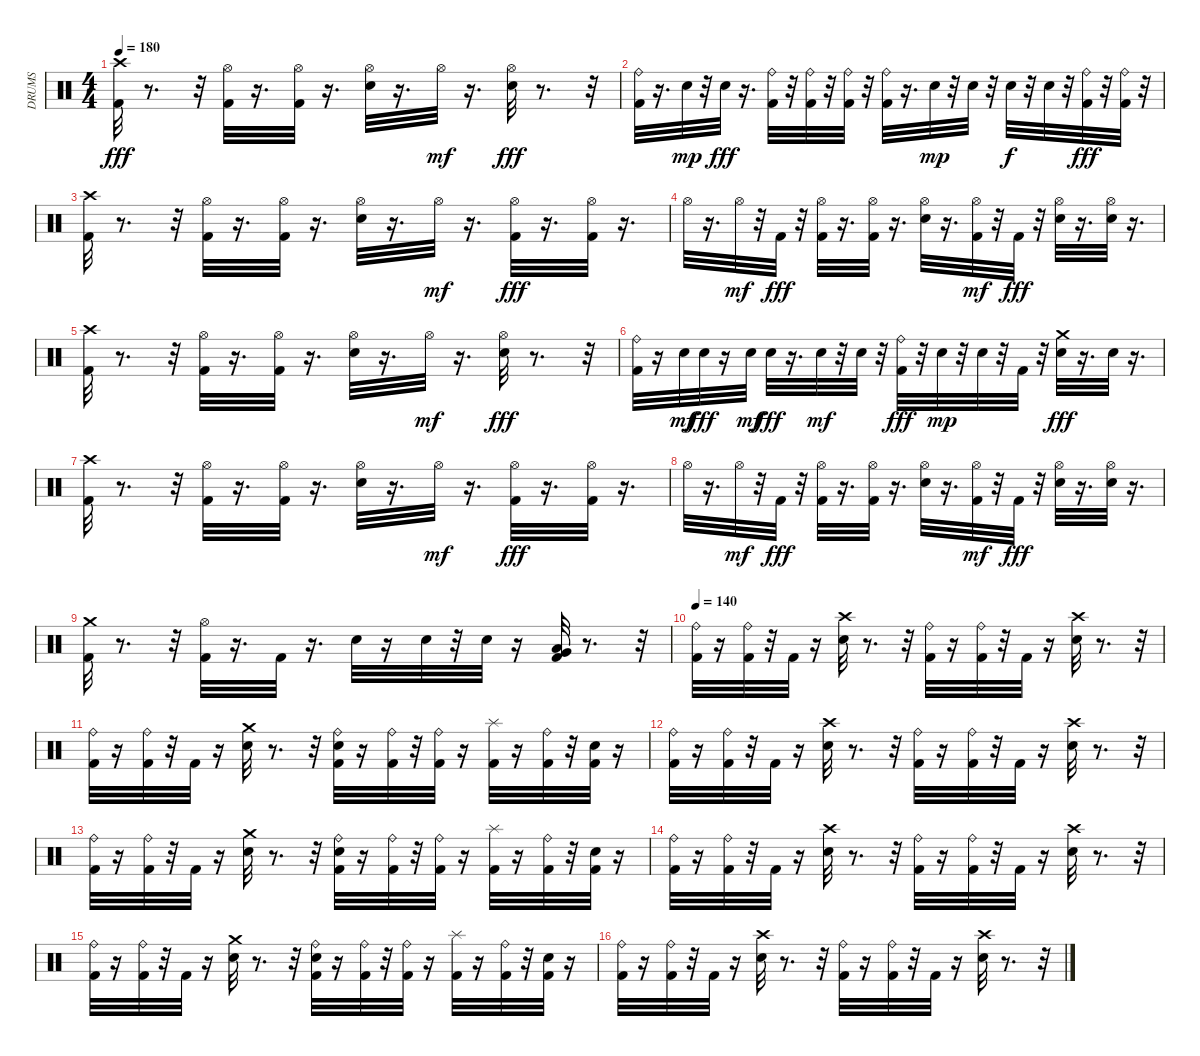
\track ("DRUMS" "DRUMS") {instrument percussion}
\staff {score}
\articulation defaults
\ts (4 4)
\tempo 180
\clef neutral
\ks c
("Crash high (hit)" "Kick (hit) 2").32{dy fff} r.8{d} r.32 ("Hi-Hat (open)" "Kick (hit) 2").32 r.16{d} ("Hi-Hat (open)" "Kick (hit) 2").32 r.16{d} ("Hi-Hat (open)" "Electric Snare (hit)").32 r.16{d} "Hi-Hat (open)".32{dy mf} r.16{d} ("Hi-Hat (open)" "Electric Snare (hit)").32{dy fff} r.8{d} r.32 |
("Ride (bell)" "Kick (hit) 2").32 r.16{d} "Electric Snare (hit)".32{dy mp} r.32 "Electric Snare (hit)".32{dy fff} r.16{d} ("Ride (bell)" "Kick (hit) 2").32 r.32 ("Ride (bell)" "Kick (hit) 2").32 r.32 ("Ride (bell)" "Kick (hit) 2").32 r.32 ("Ride (bell)" "Kick (hit) 2").32 r.16{d} "Electric Snare (hit)".32{dy mp} r.32 "Electric Snare (hit)".32 r.32 "Electric Snare (hit)".32{dy f} r.32 "Electric Snare (hit)".32 r.32 ("Ride (bell)" "Kick (hit) 2").32{dy fff} r.32 ("Ride (bell)" "Kick (hit) 2").32 r.32 |
("Crash high (hit)" "Kick (hit) 2").32 r.8{d} r.32 ("Hi-Hat (open)" "Kick (hit) 2").32 r.16{d} ("Hi-Hat (open)" "Kick (hit) 2").32 r.16{d} ("Hi-Hat (open)" "Electric Snare (hit)").32 r.16{d} "Hi-Hat (open)".32{dy mf} r.16{d} ("Hi-Hat (open)" "Kick (hit) 2").32{dy fff} r.16{d} ("Hi-Hat (open)" "Kick (hit) 2").32 r.16{d} |
"Hi-Hat (open)".32 r.16{d} "Hi-Hat (open)".32{dy mf} r.32 "Kick (hit) 2".32{dy fff} r.32 ("Hi-Hat (open)" "Kick (hit) 2").32 r.16{d} ("Hi-Hat (open)" "Kick (hit) 2").32 r.16{d} ("Hi-Hat (open)" "Electric Snare (hit)").32 r.16{d} ("Hi-Hat (open)" "Kick (hit) 2").32{dy mf} r.32 "Kick (hit) 2".32{dy fff} r.32 ("Hi-Hat (open)" "Electric Snare (hit)").32 r.16{d} ("Hi-Hat (open)" "Electric Snare (hit)").32 r.16{d} |
("Crash high (hit)" "Kick (hit) 2").32 r.8{d} r.32 ("Hi-Hat (open)" "Kick (hit) 2").32 r.16{d} ("Hi-Hat (open)" "Kick (hit) 2").32 r.16{d} ("Hi-Hat (open)" "Electric Snare (hit)").32 r.16{d} "Hi-Hat (open)".32{dy mf} r.16{d} ("Hi-Hat (open)" "Electric Snare (hit)").32{dy fff} r.8{d} r.32 |
("Ride (bell)" "Kick (hit) 2").32 r.16 "Electric Snare (hit)".32{dy mf} "Electric Snare (hit)".32{dy fff} r.16 "Electric Snare (hit)".32{dy mf} "Electric Snare (hit)".32{dy fff} r.16{d} "Electric Snare (hit)".32{dy mf} r.32 "Electric Snare (hit)".32 r.32 ("Ride (bell)" "Kick (hit) 2").32{dy fff} r.32 "Electric Snare (hit)".32{dy mp} r.32 "Electric Snare (hit)".32 r.32 "Kick (hit) 2".32 r.32 ("Crash medium (hit)" "Electric Snare (hit)").32{dy fff} r.16{d} "Electric Snare (hit)".32 r.16{d} |
("Crash high (hit)" "Kick (hit) 2").32 r.8{d} r.32 ("Hi-Hat (open)" "Kick (hit) 2").32 r.16{d} ("Hi-Hat (open)" "Kick (hit) 2").32 r.16{d} ("Hi-Hat (open)" "Electric Snare (hit)").32 r.16{d} "Hi-Hat (open)".32{dy mf} r.16{d} ("Hi-Hat (open)" "Kick (hit) 2").32{dy fff} r.16{d} ("Hi-Hat (open)" "Kick (hit) 2").32 r.16{d} |
"Hi-Hat (open)".32 r.16{d} "Hi-Hat (open)".32{dy mf} r.32 "Kick (hit) 2".32{dy fff} r.32 ("Hi-Hat (open)" "Kick (hit) 2").32 r.16{d} ("Hi-Hat (open)" "Kick (hit) 2").32 r.16{d} ("Hi-Hat (open)" "Electric Snare (hit)").32 r.16{d} ("Hi-Hat (open)" "Kick (hit) 2").32{dy mf} r.32 "Kick (hit) 2".32{dy fff} r.32 ("Hi-Hat (open)" "Electric Snare (hit)").32 r.16{d} ("Hi-Hat (open)" "Electric Snare (hit)").32 r.16{d} |
("Crash medium (hit)" "Kick (hit) 2").32 r.8{d} r.32 ("Hi-Hat (open)" "Kick (hit) 2").32 r.16{d} "Kick (hit) 2".32 r.16{d} "Electric Snare (hit)".32 r.16 "Electric Snare (hit)".32 r.32 "Electric Snare (hit)".32 r.16 ("Very Low Tom (hit)" "Low Floor Tom (hit)" "Kick (hit) 2").32 r.8{d} r.32 |
\tempo 140
("Ride (bell)" "Kick (hit) 2").32 r.16 ("Ride (bell)" "Kick (hit) 2").32 r.32 "Kick (hit) 2".32 r.16 ("Crash high (hit)" "Electric Snare (hit)").32 r.8{d} r.32 ("Ride (bell)" "Kick (hit) 2").32 r.16 ("Ride (bell)" "Kick (hit) 2").32 r.32 "Kick (hit) 2".32 r.16 ("Crash high (hit)" "Electric Snare (hit)").32 r.8{d} r.32 |
("Ride (bell)" "Kick (hit) 2").32 r.16 ("Ride (bell)" "Kick (hit) 2").32 r.32 "Kick (hit) 2".32 r.16 ("Crash medium (hit)" "Electric Snare (hit)").32 r.8{d} r.32 ("Ride (bell)" "Electric Snare (hit)" "Kick (hit) 2").32 r.16 ("Ride (bell)" "Kick (hit) 2").32 r.32 ("Ride (bell)" "Kick (hit) 2").32 r.16 ("Splash (hit)" "Kick (hit) 2").32 r.16 ("Ride (bell)" "Kick (hit) 2").32 r.32 ("Electric Snare (hit)" "Kick (hit) 2").32 r.16 |
("Ride (bell)" "Kick (hit) 2").32 r.16 ("Ride (bell)" "Kick (hit) 2").32 r.32 "Kick (hit) 2".32 r.16 ("Crash high (hit)" "Electric Snare (hit)").32 r.8{d} r.32 ("Ride (bell)" "Kick (hit) 2").32 r.16 ("Ride (bell)" "Kick (hit) 2").32 r.32 "Kick (hit) 2".32 r.16 ("Crash high (hit)" "Electric Snare (hit)").32 r.8{d} r.32 |
("Ride (bell)" "Kick (hit) 2").32 r.16 ("Ride (bell)" "Kick (hit) 2").32 r.32 "Kick (hit) 2".32 r.16 ("Crash medium (hit)" "Electric Snare (hit)").32 r.8{d} r.32 ("Ride (bell)" "Electric Snare (hit)" "Kick (hit) 2").32 r.16 ("Ride (bell)" "Kick (hit) 2").32 r.32 ("Ride (bell)" "Kick (hit) 2").32 r.16 ("Splash (hit)" "Kick (hit) 2").32 r.16 ("Ride (bell)" "Kick (hit) 2").32 r.32 ("Electric Snare (hit)" "Kick (hit) 2").32 r.16 |
("Ride (bell)" "Kick (hit) 2").32 r.16 ("Ride (bell)" "Kick (hit) 2").32 r.32 "Kick (hit) 2".32 r.16 ("Crash high (hit)" "Electric Snare (hit)").32 r.8{d} r.32 ("Ride (bell)" "Kick (hit) 2").32 r.16 ("Ride (bell)" "Kick (hit) 2").32 r.32 "Kick (hit) 2".32 r.16 ("Crash high (hit)" "Electric Snare (hit)").32 r.8{d} r.32 |
("Ride (bell)" "Kick (hit) 2").32 r.16 ("Ride (bell)" "Kick (hit) 2").32 r.32 "Kick (hit) 2".32 r.16 ("Crash medium (hit)" "Electric Snare (hit)").32 r.8{d} r.32 ("Ride (bell)" "Electric Snare (hit)" "Kick (hit) 2").32 r.16 ("Ride (bell)" "Kick (hit) 2").32 r.32 ("Ride (bell)" "Kick (hit) 2").32 r.16 ("Splash (hit)" "Kick (hit) 2").32 r.16 ("Ride (bell)" "Kick (hit) 2").32 r.32 ("Electric Snare (hit)" "Kick (hit) 2").32 r.16 |
("Ride (bell)" "Kick (hit) 2").32 r.16 ("Ride (bell)" "Kick (hit) 2").32 r.32 "Kick (hit) 2".32 r.16 ("Crash high (hit)" "Electric Snare (hit)").32 r.8{d} r.32 ("Ride (bell)" "Kick (hit) 2").32 r.16 ("Ride (bell)" "Kick (hit) 2").32 r.32 "Kick (hit) 2".32 r.16 ("Crash high (hit)" "Electric Snare (hit)").32 r.8{d} r.32
